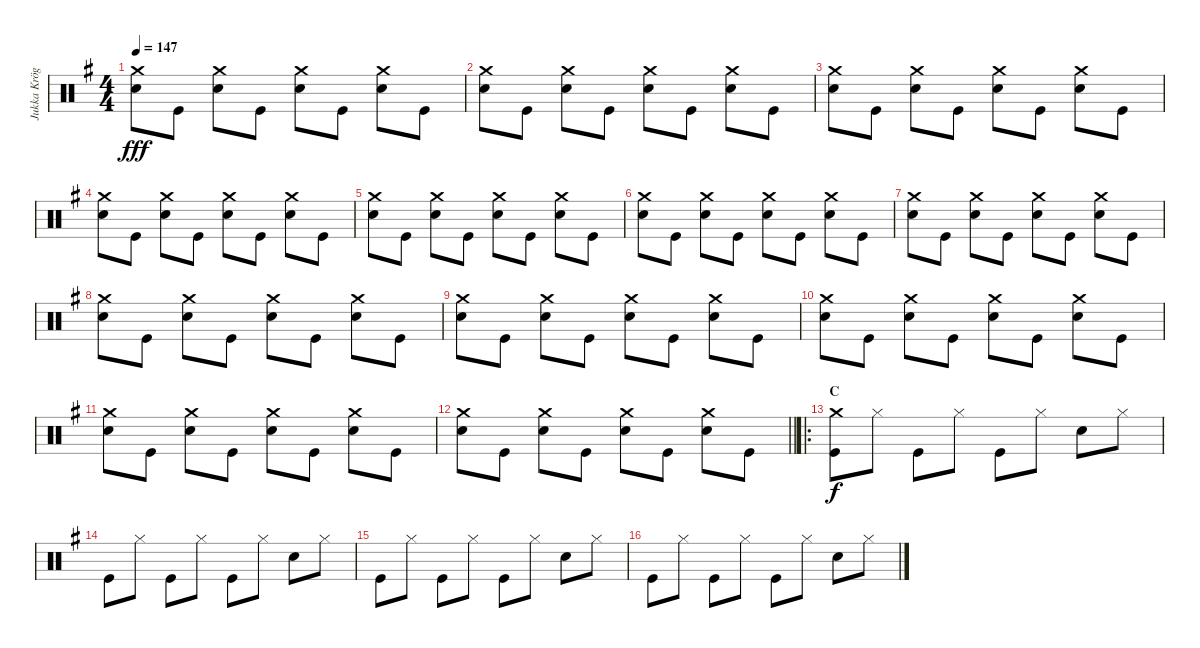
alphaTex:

\track ("Jukka Kröger" "Jukka Krög") {instrument percussion}
\staff {score}
\articulation defaults
\ts (4 4)
\tempo 147
\clef neutral
\ks eminor
("Crash medium (hit)" "Snare (hit) 2").8{dy fff} "Kick (hit)".8 ("Crash medium (hit)" "Snare (hit) 2").8 "Kick (hit)".8 ("Crash medium (hit)" "Snare (hit) 2").8 "Kick (hit)".8 ("Crash medium (hit)" "Snare (hit) 2").8 "Kick (hit)".8 |
("Crash medium (hit)" "Snare (hit) 2").8 "Kick (hit)".8 ("Crash medium (hit)" "Snare (hit) 2").8 "Kick (hit)".8 ("Crash medium (hit)" "Snare (hit) 2").8 "Kick (hit)".8 ("Crash medium (hit)" "Snare (hit) 2").8 "Kick (hit)".8 |
("Crash medium (hit)" "Snare (hit) 2").8 "Kick (hit)".8 ("Crash medium (hit)" "Snare (hit) 2").8 "Kick (hit)".8 ("Crash medium (hit)" "Snare (hit) 2").8 "Kick (hit)".8 ("Crash medium (hit)" "Snare (hit) 2").8 "Kick (hit)".8 |
("Crash medium (hit)" "Snare (hit) 2").8 "Kick (hit)".8 ("Crash medium (hit)" "Snare (hit) 2").8 "Kick (hit)".8 ("Crash medium (hit)" "Snare (hit) 2").8 "Kick (hit)".8 ("Crash medium (hit)" "Snare (hit) 2").8 "Kick (hit)".8 |
("Crash medium (hit)" "Snare (hit) 2").8 "Kick (hit)".8 ("Crash medium (hit)" "Snare (hit) 2").8 "Kick (hit)".8 ("Crash medium (hit)" "Snare (hit) 2").8 "Kick (hit)".8 ("Crash medium (hit)" "Snare (hit) 2").8 "Kick (hit)".8 |
("Crash medium (hit)" "Snare (hit) 2").8 "Kick (hit)".8 ("Crash medium (hit)" "Snare (hit) 2").8 "Kick (hit)".8 ("Crash medium (hit)" "Snare (hit) 2").8 "Kick (hit)".8 ("Crash medium (hit)" "Snare (hit) 2").8 "Kick (hit)".8 |
("Crash medium (hit)" "Snare (hit) 2").8 "Kick (hit)".8 ("Crash medium (hit)" "Snare (hit) 2").8 "Kick (hit)".8 ("Crash medium (hit)" "Snare (hit) 2").8 "Kick (hit)".8 ("Crash medium (hit)" "Snare (hit) 2").8 "Kick (hit)".8 |
("Crash medium (hit)" "Snare (hit) 2").8 "Kick (hit)".8 ("Crash medium (hit)" "Snare (hit) 2").8 "Kick (hit)".8 ("Crash medium (hit)" "Snare (hit) 2").8 "Kick (hit)".8 ("Crash medium (hit)" "Snare (hit) 2").8 "Kick (hit)".8 |
("Crash medium (hit)" "Snare (hit) 2").8 "Kick (hit)".8 ("Crash medium (hit)" "Snare (hit) 2").8 "Kick (hit)".8 ("Crash medium (hit)" "Snare (hit) 2").8 "Kick (hit)".8 ("Crash medium (hit)" "Snare (hit) 2").8 "Kick (hit)".8 |
("Crash medium (hit)" "Snare (hit) 2").8 "Kick (hit)".8 ("Crash medium (hit)" "Snare (hit) 2").8 "Kick (hit)".8 ("Crash medium (hit)" "Snare (hit) 2").8 "Kick (hit)".8 ("Crash medium (hit)" "Snare (hit) 2").8 "Kick (hit)".8 |
("Crash medium (hit)" "Snare (hit) 2").8 "Kick (hit)".8 ("Crash medium (hit)" "Snare (hit) 2").8 "Kick (hit)".8 ("Crash medium (hit)" "Snare (hit) 2").8 "Kick (hit)".8 ("Crash medium (hit)" "Snare (hit) 2").8 "Kick (hit)".8 |
\barLineRight lightlight
("Crash medium (hit)" "Snare (hit) 2").8 "Kick (hit)".8 ("Crash medium (hit)" "Snare (hit) 2").8 "Kick (hit)".8 ("Crash medium (hit)" "Snare (hit) 2").8 "Kick (hit)".8 ("Crash medium (hit)" "Snare (hit) 2").8 "Kick (hit)".8 |
\ro
\section ("" "C")
("Crash medium (hit)" "Kick (hit)").8{dy f} "Hi-Hat (closed)".8 "Kick (hit)".8 "Hi-Hat (closed)".8 "Kick (hit)".8 "Hi-Hat (closed)".8 "Snare (hit) 2".8 "Hi-Hat (closed)".8 |
"Kick (hit)".8 "Hi-Hat (closed)".8 "Kick (hit)".8 "Hi-Hat (closed)".8 "Kick (hit)".8 "Hi-Hat (closed)".8 "Snare (hit) 2".8 "Hi-Hat (closed)".8 |
"Kick (hit)".8 "Hi-Hat (closed)".8 "Kick (hit)".8 "Hi-Hat (closed)".8 "Kick (hit)".8 "Hi-Hat (closed)".8 "Snare (hit) 2".8 "Hi-Hat (closed)".8 |
"Kick (hit)".8 "Hi-Hat (closed)".8 "Kick (hit)".8 "Hi-Hat (closed)".8 "Kick (hit)".8 "Hi-Hat (closed)".8 "Snare (hit) 2".8 "Hi-Hat (closed)".8
